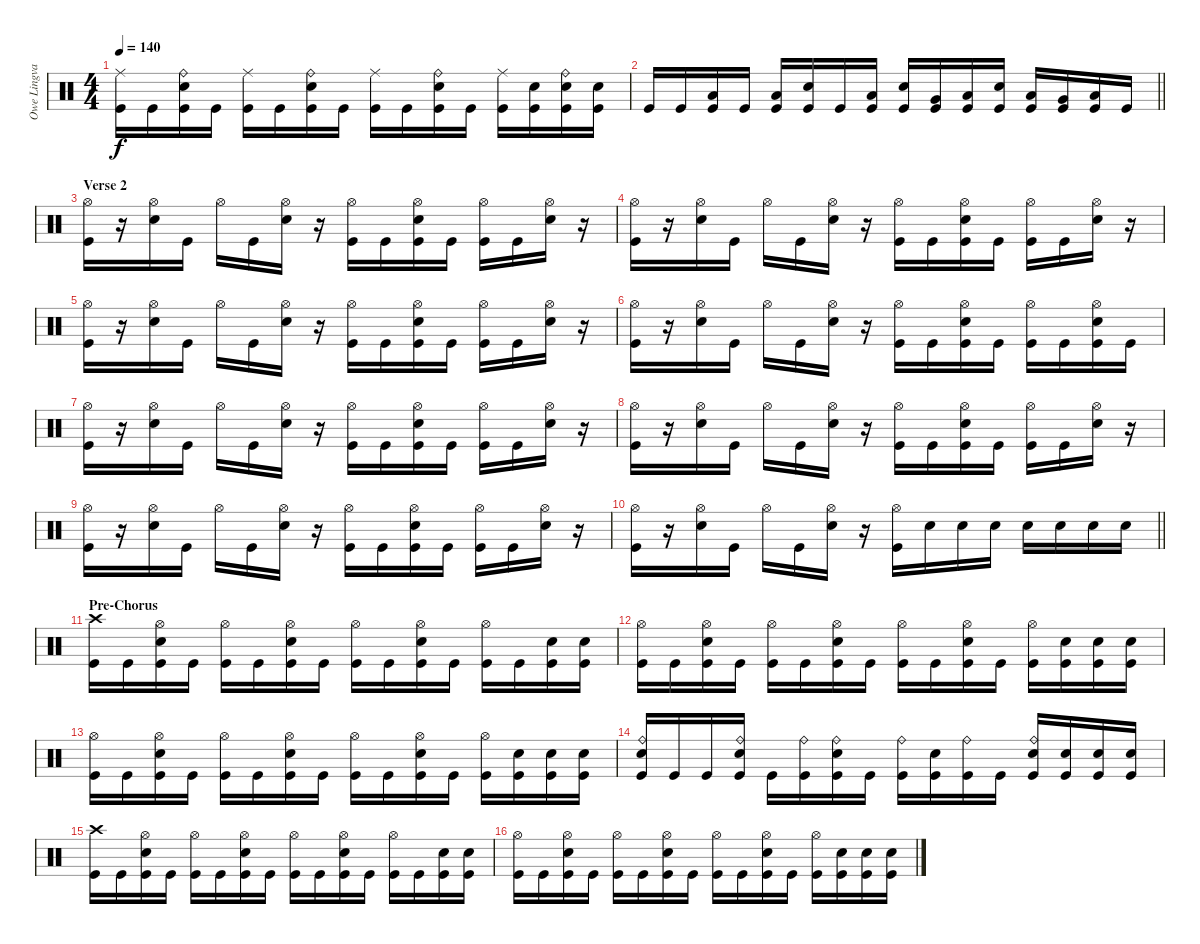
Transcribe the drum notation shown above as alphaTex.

\track ("Owe Lingvall" "Owe Lingva") {instrument percussion}
\staff {score}
\articulation defaults
\ts (4 4)
\tempo 140
\clef neutral
\ks c
("Kick (hit)" "Ride (middle)").16{dy f} "Kick (hit)".16 ("Kick (hit)" "Ride (bell)" "Snare (hit) 2").16 "Kick (hit)".16 ("Kick (hit)" "Ride (middle)").16 "Kick (hit)".16 ("Kick (hit)" "Ride (bell)" "Snare (hit) 2").16 "Kick (hit)".16 ("Kick (hit)" "Ride (middle)").16 "Kick (hit)".16 ("Kick (hit)" "Ride (bell)" "Snare (hit) 2").16 "Kick (hit)".16 ("Kick (hit)" "Ride (middle)").16 ("Kick (hit)" "Snare (hit) 2").16 ("Kick (hit)" "Ride (bell)" "Snare (hit) 2").16 ("Kick (hit)" "Snare (hit) 2").16 |
\barLineRight lightlight "Kick (hit)".16 "Kick (hit)".16
("Kick (hit)" "Low Tom (hit)").16 "Kick (hit)".16 ("Kick (hit)" "Low Floor Tom (hit)").16 ("Kick (hit)" "Snare (hit) 2").16 "Kick (hit)".16 ("Kick (hit)" "Low Floor Tom (hit)").16 ("Kick (hit)" "Snare (hit) 2").16 ("Kick (hit)" "Very Low Tom (hit)").16 ("Kick (hit)" "Low Floor Tom (hit)").16 ("Kick (hit)" "Snare (hit) 2").16 ("Kick (hit)" "Low Tom (hit)").16 ("Kick (hit)" "Very Low Tom (hit)").16 ("Kick (hit)" "Low Tom (hit)").16 "Kick (hit)".16 |
\section ("" "Verse 2")
("Hi-Hat (open)" "Kick (hit)").16 r.16 ("Hi-Hat (open)" "Snare (hit) 2").16 "Kick (hit)".16 "Hi-Hat (open)".16 "Kick (hit)".16 ("Hi-Hat (open)" "Snare (hit) 2").16 r.16 ("Hi-Hat (open)" "Kick (hit)").16 "Kick (hit)".16 ("Hi-Hat (open)" "Snare (hit) 2" "Kick (hit)").16 "Kick (hit)".16 ("Kick (hit)" "Hi-Hat (open)").16 "Kick (hit)".16 ("Snare (hit) 2" "Hi-Hat (open)").16 r.16 |
("Hi-Hat (open)" "Kick (hit)").16 r.16 ("Hi-Hat (open)" "Snare (hit) 2").16 "Kick (hit)".16 "Hi-Hat (open)".16 "Kick (hit)".16 ("Hi-Hat (open)" "Snare (hit) 2").16 r.16 ("Hi-Hat (open)" "Kick (hit)").16 "Kick (hit)".16 ("Hi-Hat (open)" "Snare (hit) 2" "Kick (hit)").16 "Kick (hit)".16 ("Kick (hit)" "Hi-Hat (open)").16 "Kick (hit)".16 ("Snare (hit) 2" "Hi-Hat (open)").16 r.16 |
("Hi-Hat (open)" "Kick (hit)").16 r.16 ("Hi-Hat (open)" "Snare (hit) 2").16 "Kick (hit)".16 "Hi-Hat (open)".16 "Kick (hit)".16 ("Hi-Hat (open)" "Snare (hit) 2").16 r.16 ("Hi-Hat (open)" "Kick (hit)").16 "Kick (hit)".16 ("Hi-Hat (open)" "Snare (hit) 2" "Kick (hit)").16 "Kick (hit)".16 ("Kick (hit)" "Hi-Hat (open)").16 "Kick (hit)".16 ("Snare (hit) 2" "Hi-Hat (open)").16 r.16 |
("Hi-Hat (open)" "Kick (hit)").16 r.16 ("Hi-Hat (open)" "Snare (hit) 2").16 "Kick (hit)".16 "Hi-Hat (open)".16 "Kick (hit)".16 ("Hi-Hat (open)" "Snare (hit) 2").16 r.16 ("Hi-Hat (open)" "Kick (hit)").16 "Kick (hit)".16 ("Hi-Hat (open)" "Snare (hit) 2" "Kick (hit)").16 "Kick (hit)".16 ("Kick (hit)" "Hi-Hat (open)").16 "Kick (hit)".16 ("Snare (hit) 2" "Kick (hit)" "Hi-Hat (open)").16 "Kick (hit)".16 |
("Hi-Hat (open)" "Kick (hit)").16 r.16 ("Hi-Hat (open)" "Snare (hit) 2").16 "Kick (hit)".16 "Hi-Hat (open)".16 "Kick (hit)".16 ("Hi-Hat (open)" "Snare (hit) 2").16 r.16 ("Hi-Hat (open)" "Kick (hit)").16 "Kick (hit)".16 ("Hi-Hat (open)" "Snare (hit) 2" "Kick (hit)").16 "Kick (hit)".16 ("Kick (hit)" "Hi-Hat (open)").16 "Kick (hit)".16 ("Snare (hit) 2" "Hi-Hat (open)").16 r.16 |
("Hi-Hat (open)" "Kick (hit)").16 r.16 ("Hi-Hat (open)" "Snare (hit) 2").16 "Kick (hit)".16 "Hi-Hat (open)".16 "Kick (hit)".16 ("Hi-Hat (open)" "Snare (hit) 2").16 r.16 ("Hi-Hat (open)" "Kick (hit)").16 "Kick (hit)".16 ("Hi-Hat (open)" "Snare (hit) 2" "Kick (hit)").16 "Kick (hit)".16 ("Kick (hit)" "Hi-Hat (open)").16 "Kick (hit)".16 ("Snare (hit) 2" "Hi-Hat (open)").16 r.16 |
("Hi-Hat (open)" "Kick (hit)").16 r.16 ("Hi-Hat (open)" "Snare (hit) 2").16 "Kick (hit)".16 "Hi-Hat (open)".16 "Kick (hit)".16 ("Hi-Hat (open)" "Snare (hit) 2").16 r.16 ("Hi-Hat (open)" "Kick (hit)").16 "Kick (hit)".16 ("Hi-Hat (open)" "Snare (hit) 2" "Kick (hit)").16 "Kick (hit)".16 ("Kick (hit)" "Hi-Hat (open)").16 "Kick (hit)".16 ("Snare (hit) 2" "Hi-Hat (open)").16 r.16 |
\barLineRight lightlight
("Hi-Hat (open)" "Kick (hit)").16 r.16 ("Hi-Hat (open)" "Snare (hit) 2").16 "Kick (hit)".16 "Hi-Hat (open)".16 "Kick (hit)".16 ("Hi-Hat (open)" "Snare (hit) 2").16 r.16 ("Hi-Hat (open)" "Kick (hit)").16 "Snare (hit) 2".16 "Snare (hit) 2".16 "Snare (hit) 2".16 "Snare (hit) 2".16 "Snare (hit) 2".16 "Snare (hit) 2".16 "Snare (hit) 2".16 |
\section ("" "Pre-Chorus")
("Kick (hit)" "Crash high (hit)").16 "Kick (hit)".16 ("Kick (hit)" "Hi-Hat (open)" "Snare (hit) 2").16 "Kick (hit)".16 ("Kick (hit)" "Hi-Hat (open)").16 "Kick (hit)".16 ("Kick (hit)" "Hi-Hat (open)" "Snare (hit) 2").16 "Kick (hit)".16 ("Kick (hit)" "Hi-Hat (open)").16 "Kick (hit)".16 ("Kick (hit)" "Hi-Hat (open)" "Snare (hit) 2").16 "Kick (hit)".16 ("Kick (hit)" "Hi-Hat (open)").16 "Kick (hit)".16 ("Kick (hit)" "Snare (hit) 2").16 ("Kick (hit)" "Snare (hit) 2").16 |
("Kick (hit)" "Hi-Hat (open)").16 "Kick (hit)".16 ("Kick (hit)" "Hi-Hat (open)" "Snare (hit) 2").16 "Kick (hit)".16 ("Kick (hit)" "Hi-Hat (open)").16 "Kick (hit)".16 ("Kick (hit)" "Hi-Hat (open)" "Snare (hit) 2").16 "Kick (hit)".16 ("Kick (hit)" "Hi-Hat (open)").16 "Kick (hit)".16 ("Kick (hit)" "Hi-Hat (open)" "Snare (hit) 2").16 "Kick (hit)".16 ("Kick (hit)" "Hi-Hat (open)").16 ("Kick (hit)" "Snare (hit) 2").16 ("Kick (hit)" "Snare (hit) 2").16 ("Kick (hit)" "Snare (hit) 2").16 |
("Kick (hit)" "Hi-Hat (open)").16 "Kick (hit)".16 ("Kick (hit)" "Hi-Hat (open)" "Snare (hit) 2").16 "Kick (hit)".16 ("Kick (hit)" "Hi-Hat (open)").16 "Kick (hit)".16 ("Kick (hit)" "Hi-Hat (open)" "Snare (hit) 2").16 "Kick (hit)".16 ("Kick (hit)" "Hi-Hat (open)").16 "Kick (hit)".16 ("Kick (hit)" "Hi-Hat (open)" "Snare (hit) 2").16 "Kick (hit)".16 ("Kick (hit)" "Hi-Hat (open)").16 ("Kick (hit)" "Snare (hit) 2").16 ("Kick (hit)" "Snare (hit) 2").16 ("Kick (hit)" "Snare (hit) 2").16 |
("Kick (hit)" "Snare (hit) 2" "Ride (bell)").16 "Kick (hit)".16 "Kick (hit)".16 ("Kick (hit)" "Snare (hit) 2" "Ride (bell)").16 "Kick (hit)".16 ("Kick (hit)" "Ride (bell)").16 ("Kick (hit)" "Snare (hit) 2" "Ride (bell)").16 "Kick (hit)".16 ("Kick (hit)" "Ride (bell)").16 ("Kick (hit)" "Snare (hit) 2").16 ("Kick (hit)" "Ride (bell)").16 "Kick (hit)".16 ("Kick (hit)" "Snare (hit) 2" "Ride (bell)").16 ("Kick (hit)" "Snare (hit) 2").16 ("Kick (hit)" "Snare (hit) 2").16 ("Kick (hit)" "Snare (hit) 2").16 |
("Kick (hit)" "Crash high (hit)").16 "Kick (hit)".16 ("Kick (hit)" "Hi-Hat (open)" "Snare (hit) 2").16 "Kick (hit)".16 ("Kick (hit)" "Hi-Hat (open)").16 "Kick (hit)".16 ("Kick (hit)" "Hi-Hat (open)" "Snare (hit) 2").16 "Kick (hit)".16 ("Kick (hit)" "Hi-Hat (open)").16 "Kick (hit)".16 ("Kick (hit)" "Hi-Hat (open)" "Snare (hit) 2").16 "Kick (hit)".16 ("Kick (hit)" "Hi-Hat (open)").16 "Kick (hit)".16 ("Kick (hit)" "Snare (hit) 2").16 ("Kick (hit)" "Snare (hit) 2").16 |
("Kick (hit)" "Hi-Hat (open)").16 "Kick (hit)".16 ("Kick (hit)" "Hi-Hat (open)" "Snare (hit) 2").16 "Kick (hit)".16 ("Kick (hit)" "Hi-Hat (open)").16 "Kick (hit)".16 ("Kick (hit)" "Hi-Hat (open)" "Snare (hit) 2").16 "Kick (hit)".16 ("Kick (hit)" "Hi-Hat (open)").16 "Kick (hit)".16 ("Kick (hit)" "Hi-Hat (open)" "Snare (hit) 2").16 "Kick (hit)".16 ("Kick (hit)" "Hi-Hat (open)").16 ("Kick (hit)" "Snare (hit) 2").16 ("Kick (hit)" "Snare (hit) 2").16 ("Kick (hit)" "Snare (hit) 2").16
